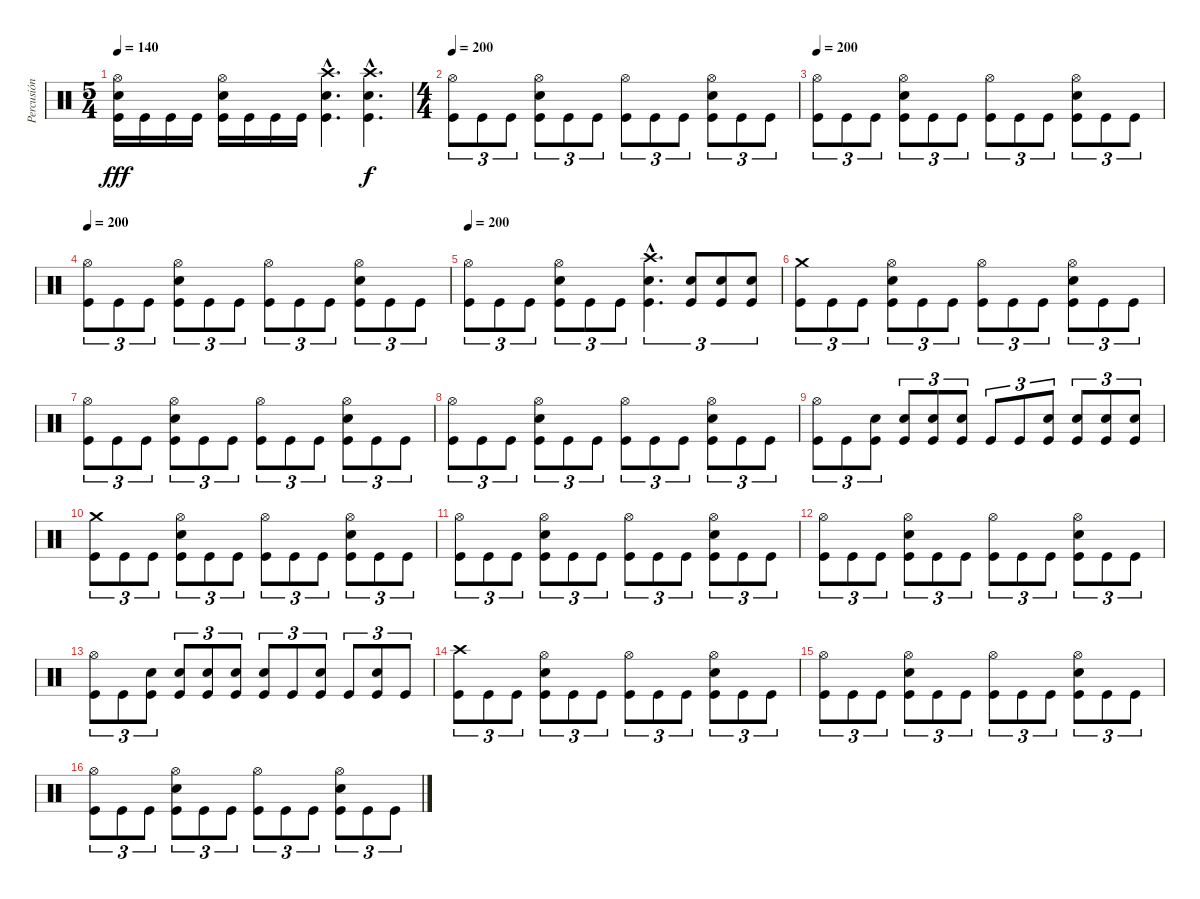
\track ("Percusión" "Percusión") {instrument percussion}
\staff {score}
\articulation defaults
\ts (5 4)
\tempo 140
\clef neutral
\ks c
("Hi-Hat (open)" "Electric Snare (hit)" "Kick (hit)").16{dy fff} "Kick (hit)".16 "Kick (hit)".16 "Kick (hit)".16 ("Hi-Hat (open)" "Electric Snare (hit)" "Kick (hit)").16 "Kick (hit)".16 "Kick (hit)".16 "Kick (hit)".16 ("Crash high (hit)"{hac} "Electric Snare (hit)"{hac} "Kick (hit)"{hac}).4{d} ("Crash high (hit)"{hac} "Electric Snare (hit)"{hac} "Kick (hit)"{hac}).4{d dy f} |
\ts (4 4)
\tempo 200
("Hi-Hat (open)" "Kick (hit)").8{tu (3 2)} "Kick (hit)".8{tu (3 2)} "Kick (hit)".8{tu (3 2)} ("Hi-Hat (open)" "Electric Snare (hit)" "Kick (hit)").8{tu (3 2)} "Kick (hit)".8{tu (3 2)} "Kick (hit)".8{tu (3 2)} ("Hi-Hat (open)" "Kick (hit)").8{tu (3 2)} "Kick (hit)".8{tu (3 2)} "Kick (hit)".8{tu (3 2)} ("Hi-Hat (open)" "Electric Snare (hit)" "Kick (hit)").8{tu (3 2)} "Kick (hit)".8{tu (3 2)} "Kick (hit)".8{tu (3 2)} |
\tempo 200
("Hi-Hat (open)" "Kick (hit)").8{tu (3 2)} "Kick (hit)".8{tu (3 2)} "Kick (hit)".8{tu (3 2)} ("Hi-Hat (open)" "Electric Snare (hit)" "Kick (hit)").8{tu (3 2)} "Kick (hit)".8{tu (3 2)} "Kick (hit)".8{tu (3 2)} ("Hi-Hat (open)" "Kick (hit)").8{tu (3 2)} "Kick (hit)".8{tu (3 2)} "Kick (hit)".8{tu (3 2)} ("Hi-Hat (open)" "Electric Snare (hit)" "Kick (hit)").8{tu (3 2)} "Kick (hit)".8{tu (3 2)} "Kick (hit)".8{tu (3 2)} |
\tempo 200
("Hi-Hat (open)" "Kick (hit)").8{tu (3 2)} "Kick (hit)".8{tu (3 2)} "Kick (hit)".8{tu (3 2)} ("Hi-Hat (open)" "Electric Snare (hit)" "Kick (hit)").8{tu (3 2)} "Kick (hit)".8{tu (3 2)} "Kick (hit)".8{tu (3 2)} ("Hi-Hat (open)" "Kick (hit)").8{tu (3 2)} "Kick (hit)".8{tu (3 2)} "Kick (hit)".8{tu (3 2)} ("Hi-Hat (open)" "Electric Snare (hit)" "Kick (hit)").8{tu (3 2)} "Kick (hit)".8{tu (3 2)} "Kick (hit)".8{tu (3 2)} |
\tempo 200
("Hi-Hat (open)" "Kick (hit)").8{tu (3 2)} "Kick (hit)".8{tu (3 2)} "Kick (hit)".8{tu (3 2)} ("Hi-Hat (open)" "Electric Snare (hit)" "Kick (hit)").8{tu (3 2)} "Kick (hit)".8{tu (3 2)} "Kick (hit)".8{tu (3 2)} ("Crash high (hit)"{hac} "Electric Snare (hit)"{hac} "Kick (hit)"{hac}).4{d tu (3 2)} ("Electric Snare (hit)" "Kick (hit)").8{tu (3 2)} ("Electric Snare (hit)" "Kick (hit)").8{tu (3 2)} ("Electric Snare (hit)" "Kick (hit)").8{tu (3 2)} |
("Crash medium (hit)" "Kick (hit)").8{tu (3 2)} "Kick (hit)".8{tu (3 2)} "Kick (hit)".8{tu (3 2)} ("Hi-Hat (open)" "Electric Snare (hit)" "Kick (hit)").8{tu (3 2)} "Kick (hit)".8{tu (3 2)} "Kick (hit)".8{tu (3 2)} ("Hi-Hat (open)" "Kick (hit)").8{tu (3 2)} "Kick (hit)".8{tu (3 2)} "Kick (hit)".8{tu (3 2)} ("Hi-Hat (open)" "Electric Snare (hit)" "Kick (hit)").8{tu (3 2)} "Kick (hit)".8{tu (3 2)} "Kick (hit)".8{tu (3 2)} |
("Hi-Hat (open)" "Kick (hit)").8{tu (3 2)} "Kick (hit)".8{tu (3 2)} "Kick (hit)".8{tu (3 2)} ("Hi-Hat (open)" "Electric Snare (hit)" "Kick (hit)").8{tu (3 2)} "Kick (hit)".8{tu (3 2)} "Kick (hit)".8{tu (3 2)} ("Hi-Hat (open)" "Kick (hit)").8{tu (3 2)} "Kick (hit)".8{tu (3 2)} "Kick (hit)".8{tu (3 2)} ("Hi-Hat (open)" "Electric Snare (hit)" "Kick (hit)").8{tu (3 2)} "Kick (hit)".8{tu (3 2)} "Kick (hit)".8{tu (3 2)} |
("Hi-Hat (open)" "Kick (hit)").8{tu (3 2)} "Kick (hit)".8{tu (3 2)} "Kick (hit)".8{tu (3 2)} ("Hi-Hat (open)" "Electric Snare (hit)" "Kick (hit)").8{tu (3 2)} "Kick (hit)".8{tu (3 2)} "Kick (hit)".8{tu (3 2)} ("Hi-Hat (open)" "Kick (hit)").8{tu (3 2)} "Kick (hit)".8{tu (3 2)} "Kick (hit)".8{tu (3 2)} ("Hi-Hat (open)" "Electric Snare (hit)" "Kick (hit)").8{tu (3 2)} "Kick (hit)".8{tu (3 2)} "Kick (hit)".8{tu (3 2)} |
("Hi-Hat (open)" "Kick (hit)").8{tu (3 2)} "Kick (hit)".8{tu (3 2)} ("Electric Snare (hit)" "Kick (hit)").8{tu (3 2)} ("Electric Snare (hit)" "Kick (hit)").8{tu (3 2)} ("Electric Snare (hit)" "Kick (hit)").8{tu (3 2)} ("Electric Snare (hit)" "Kick (hit)").8{tu (3 2)} "Kick (hit)".8{tu (3 2)} "Kick (hit)".8{tu (3 2)} ("Electric Snare (hit)" "Kick (hit)").8{tu (3 2)} ("Electric Snare (hit)" "Kick (hit)").8{tu (3 2)} ("Electric Snare (hit)" "Kick (hit)").8{tu (3 2)} ("Electric Snare (hit)" "Kick (hit)").8{tu (3 2)} |
("Crash medium (hit)" "Kick (hit)").8{tu (3 2)} "Kick (hit)".8{tu (3 2)} "Kick (hit)".8{tu (3 2)} ("Hi-Hat (open)" "Electric Snare (hit)" "Kick (hit)").8{tu (3 2)} "Kick (hit)".8{tu (3 2)} "Kick (hit)".8{tu (3 2)} ("Hi-Hat (open)" "Kick (hit)").8{tu (3 2)} "Kick (hit)".8{tu (3 2)} "Kick (hit)".8{tu (3 2)} ("Hi-Hat (open)" "Electric Snare (hit)" "Kick (hit)").8{tu (3 2)} "Kick (hit)".8{tu (3 2)} "Kick (hit)".8{tu (3 2)} |
("Hi-Hat (open)" "Kick (hit)").8{tu (3 2)} "Kick (hit)".8{tu (3 2)} "Kick (hit)".8{tu (3 2)} ("Hi-Hat (open)" "Electric Snare (hit)" "Kick (hit)").8{tu (3 2)} "Kick (hit)".8{tu (3 2)} "Kick (hit)".8{tu (3 2)} ("Hi-Hat (open)" "Kick (hit)").8{tu (3 2)} "Kick (hit)".8{tu (3 2)} "Kick (hit)".8{tu (3 2)} ("Hi-Hat (open)" "Electric Snare (hit)" "Kick (hit)").8{tu (3 2)} "Kick (hit)".8{tu (3 2)} "Kick (hit)".8{tu (3 2)} |
("Hi-Hat (open)" "Kick (hit)").8{tu (3 2)} "Kick (hit)".8{tu (3 2)} "Kick (hit)".8{tu (3 2)} ("Hi-Hat (open)" "Electric Snare (hit)" "Kick (hit)").8{tu (3 2)} "Kick (hit)".8{tu (3 2)} "Kick (hit)".8{tu (3 2)} ("Hi-Hat (open)" "Kick (hit)").8{tu (3 2)} "Kick (hit)".8{tu (3 2)} "Kick (hit)".8{tu (3 2)} ("Hi-Hat (open)" "Electric Snare (hit)" "Kick (hit)").8{tu (3 2)} "Kick (hit)".8{tu (3 2)} "Kick (hit)".8{tu (3 2)} |
("Hi-Hat (open)" "Kick (hit)").8{tu (3 2)} "Kick (hit)".8{tu (3 2)} ("Electric Snare (hit)" "Kick (hit)").8{tu (3 2)} ("Electric Snare (hit)" "Kick (hit)").8{tu (3 2)} ("Electric Snare (hit)" "Kick (hit)").8{tu (3 2)} ("Electric Snare (hit)" "Kick (hit)").8{tu (3 2)} ("Electric Snare (hit)" "Kick (hit)").8{tu (3 2)} "Kick (hit)".8{tu (3 2)} ("Electric Snare (hit)" "Kick (hit)").8{tu (3 2)} "Kick (hit)".8{tu (3 2)} ("Electric Snare (hit)" "Kick (hit)").8{tu (3 2)} "Kick (hit)".8{tu (3 2)} |
("Crash high (hit)" "Kick (hit)").8{tu (3 2)} "Kick (hit)".8{tu (3 2)} "Kick (hit)".8{tu (3 2)} ("Hi-Hat (open)" "Electric Snare (hit)" "Kick (hit)").8{tu (3 2)} "Kick (hit)".8{tu (3 2)} "Kick (hit)".8{tu (3 2)} ("Hi-Hat (open)" "Kick (hit)").8{tu (3 2)} "Kick (hit)".8{tu (3 2)} "Kick (hit)".8{tu (3 2)} ("Hi-Hat (open)" "Electric Snare (hit)" "Kick (hit)").8{tu (3 2)} "Kick (hit)".8{tu (3 2)} "Kick (hit)".8{tu (3 2)} |
("Hi-Hat (open)" "Kick (hit)").8{tu (3 2)} "Kick (hit)".8{tu (3 2)} "Kick (hit)".8{tu (3 2)} ("Hi-Hat (open)" "Electric Snare (hit)" "Kick (hit)").8{tu (3 2)} "Kick (hit)".8{tu (3 2)} "Kick (hit)".8{tu (3 2)} ("Hi-Hat (open)" "Kick (hit)").8{tu (3 2)} "Kick (hit)".8{tu (3 2)} "Kick (hit)".8{tu (3 2)} ("Hi-Hat (open)" "Electric Snare (hit)" "Kick (hit)").8{tu (3 2)} "Kick (hit)".8{tu (3 2)} "Kick (hit)".8{tu (3 2)} |
("Hi-Hat (open)" "Kick (hit)").8{tu (3 2)} "Kick (hit)".8{tu (3 2)} "Kick (hit)".8{tu (3 2)} ("Hi-Hat (open)" "Electric Snare (hit)" "Kick (hit)").8{tu (3 2)} "Kick (hit)".8{tu (3 2)} "Kick (hit)".8{tu (3 2)} ("Hi-Hat (open)" "Kick (hit)").8{tu (3 2)} "Kick (hit)".8{tu (3 2)} "Kick (hit)".8{tu (3 2)} ("Hi-Hat (open)" "Electric Snare (hit)" "Kick (hit)").8{tu (3 2)} "Kick (hit)".8{tu (3 2)} "Kick (hit)".8{tu (3 2)}
